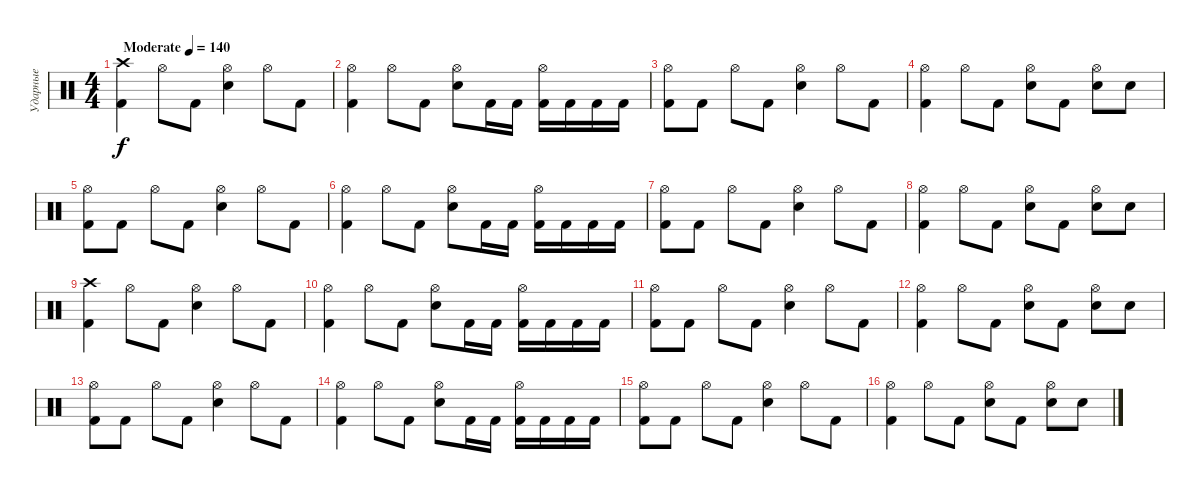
\track ("Ударные" "Ударные") {instrument percussion}
\staff {score}
\articulation defaults
\ts (4 4)
\tempo (140 "Moderate")
\clef neutral
\ks c
("Crash high (hit)" "Kick (hit) 2").4{dy f} "Hi-Hat (open)".8 "Kick (hit) 2".8 ("Hi-Hat (open)" "Snare (hit) 2").4 "Hi-Hat (open)".8 "Kick (hit) 2".8 |
("Hi-Hat (open)" "Kick (hit) 2").4 "Hi-Hat (open)".8 "Kick (hit) 2".8 ("Hi-Hat (open)" "Snare (hit) 2").8 "Kick (hit) 2".16 "Kick (hit) 2".16 ("Hi-Hat (open)" "Kick (hit) 2").16 "Kick (hit) 2".16 "Kick (hit) 2".16 "Kick (hit) 2".16 |
("Hi-Hat (open)" "Kick (hit) 2").8 "Kick (hit) 2".8 "Hi-Hat (open)".8 "Kick (hit) 2".8 ("Hi-Hat (open)" "Snare (hit) 2").4 "Hi-Hat (open)".8 "Kick (hit) 2".8 |
("Hi-Hat (open)" "Kick (hit) 2").4 "Hi-Hat (open)".8 "Kick (hit) 2".8 ("Hi-Hat (open)" "Snare (hit) 2").8 "Kick (hit) 2".8 ("Hi-Hat (open)" "Snare (hit) 2").8 "Snare (hit) 2".8 |
("Hi-Hat (open)" "Kick (hit) 2").8 "Kick (hit) 2".8 "Hi-Hat (open)".8 "Kick (hit) 2".8 ("Hi-Hat (open)" "Snare (hit) 2").4 "Hi-Hat (open)".8 "Kick (hit) 2".8 |
("Hi-Hat (open)" "Kick (hit) 2").4 "Hi-Hat (open)".8 "Kick (hit) 2".8 ("Hi-Hat (open)" "Snare (hit) 2").8 "Kick (hit) 2".16 "Kick (hit) 2".16 ("Hi-Hat (open)" "Kick (hit) 2").16 "Kick (hit) 2".16 "Kick (hit) 2".16 "Kick (hit) 2".16 |
("Hi-Hat (open)" "Kick (hit) 2").8 "Kick (hit) 2".8 "Hi-Hat (open)".8 "Kick (hit) 2".8 ("Hi-Hat (open)" "Snare (hit) 2").4 "Hi-Hat (open)".8 "Kick (hit) 2".8 |
("Hi-Hat (open)" "Kick (hit) 2").4 "Hi-Hat (open)".8 "Kick (hit) 2".8 ("Hi-Hat (open)" "Snare (hit) 2").8 "Kick (hit) 2".8 ("Hi-Hat (open)" "Snare (hit) 2").8 "Snare (hit) 2".8 |
("Crash high (hit)" "Kick (hit) 2").4 "Hi-Hat (open)".8 "Kick (hit) 2".8 ("Hi-Hat (open)" "Snare (hit) 2").4 "Hi-Hat (open)".8 "Kick (hit) 2".8 |
("Hi-Hat (open)" "Kick (hit) 2").4 "Hi-Hat (open)".8 "Kick (hit) 2".8 ("Hi-Hat (open)" "Snare (hit) 2").8 "Kick (hit) 2".16 "Kick (hit) 2".16 ("Hi-Hat (open)" "Kick (hit) 2").16 "Kick (hit) 2".16 "Kick (hit) 2".16 "Kick (hit) 2".16 |
("Hi-Hat (open)" "Kick (hit) 2").8 "Kick (hit) 2".8 "Hi-Hat (open)".8 "Kick (hit) 2".8 ("Hi-Hat (open)" "Snare (hit) 2").4 "Hi-Hat (open)".8 "Kick (hit) 2".8 |
("Hi-Hat (open)" "Kick (hit) 2").4 "Hi-Hat (open)".8 "Kick (hit) 2".8 ("Hi-Hat (open)" "Snare (hit) 2").8 "Kick (hit) 2".8 ("Hi-Hat (open)" "Snare (hit) 2").8 "Snare (hit) 2".8 |
("Hi-Hat (open)" "Kick (hit) 2").8 "Kick (hit) 2".8 "Hi-Hat (open)".8 "Kick (hit) 2".8 ("Hi-Hat (open)" "Snare (hit) 2").4 "Hi-Hat (open)".8 "Kick (hit) 2".8 |
("Hi-Hat (open)" "Kick (hit) 2").4 "Hi-Hat (open)".8 "Kick (hit) 2".8 ("Hi-Hat (open)" "Snare (hit) 2").8 "Kick (hit) 2".16 "Kick (hit) 2".16 ("Hi-Hat (open)" "Kick (hit) 2").16 "Kick (hit) 2".16 "Kick (hit) 2".16 "Kick (hit) 2".16 |
("Hi-Hat (open)" "Kick (hit) 2").8 "Kick (hit) 2".8 "Hi-Hat (open)".8 "Kick (hit) 2".8 ("Hi-Hat (open)" "Snare (hit) 2").4 "Hi-Hat (open)".8 "Kick (hit) 2".8 |
("Hi-Hat (open)" "Kick (hit) 2").4 "Hi-Hat (open)".8 "Kick (hit) 2".8 ("Hi-Hat (open)" "Snare (hit) 2").8 "Kick (hit) 2".8 ("Hi-Hat (open)" "Snare (hit) 2").8 "Snare (hit) 2".8
